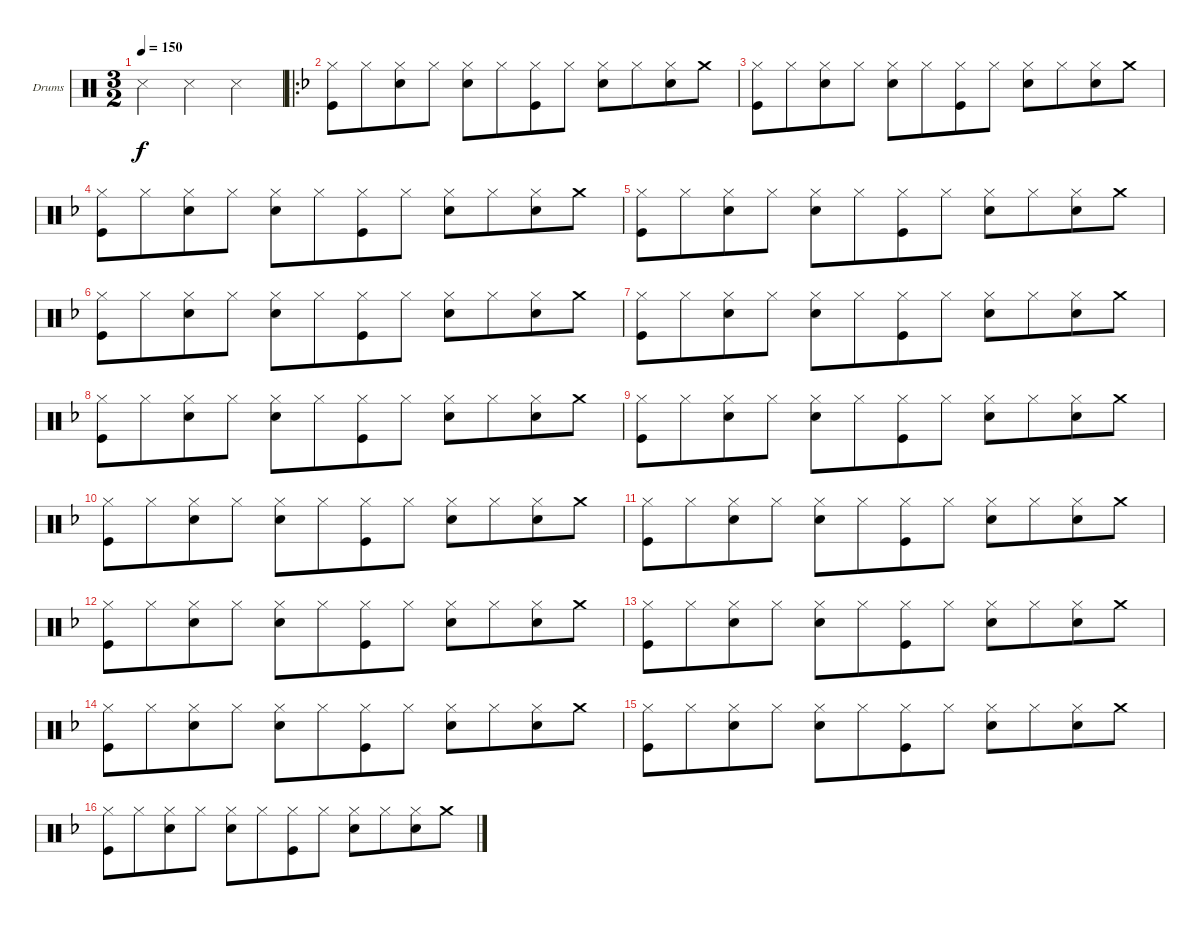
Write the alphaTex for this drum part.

\bracketExtendMode groupsimilarinstruments
\firstSystemTrackNameOrientation horizontal
\otherSystemsTrackNameOrientation horizontal
\track ("Drumkit" "Drums") {instrument percussion}
\staff {score}
\articulation defaults
\ts (3 2)
\beaming (8 4 4 4)
\tempo 150
\clef neutral
\ks c "Snare (side stick) 3".2{dy f} "Snare (side stick) 3".2 "Snare (side stick) 3".2
|
\ro
\ks f
("Hi-Hat (closed)" "Kick (hit)").8 "Hi-Hat (closed)".8 ("Hi-Hat (closed)" "Snare (hit) 2").8 "Hi-Hat (closed)".8 ("Hi-Hat (closed)" "Snare (hit) 2").8 "Hi-Hat (closed)".8 ("Hi-Hat (closed)" "Kick (hit)").8 "Hi-Hat (closed)".8 ("Hi-Hat (closed)" "Snare (hit) 2").8 "Hi-Hat (closed)".8 ("Hi-Hat (closed)" "Snare (hit) 2").8 "Crash medium (hit)".8 |
("Hi-Hat (closed)" "Kick (hit)").8 "Hi-Hat (closed)".8 ("Hi-Hat (closed)" "Snare (hit) 2").8 "Hi-Hat (closed)".8 ("Hi-Hat (closed)" "Snare (hit) 2").8 "Hi-Hat (closed)".8 ("Hi-Hat (closed)" "Kick (hit)").8 "Hi-Hat (closed)".8 ("Hi-Hat (closed)" "Snare (hit) 2").8 "Hi-Hat (closed)".8 ("Hi-Hat (closed)" "Snare (hit) 2").8 "Crash medium (hit)".8 |
("Hi-Hat (closed)" "Kick (hit)").8 "Hi-Hat (closed)".8 ("Hi-Hat (closed)" "Snare (hit) 2").8 "Hi-Hat (closed)".8 ("Hi-Hat (closed)" "Snare (hit) 2").8 "Hi-Hat (closed)".8 ("Hi-Hat (closed)" "Kick (hit)").8 "Hi-Hat (closed)".8 ("Hi-Hat (closed)" "Snare (hit) 2").8 "Hi-Hat (closed)".8 ("Hi-Hat (closed)" "Snare (hit) 2").8 "Crash medium (hit)".8 |
("Hi-Hat (closed)" "Kick (hit)").8 "Hi-Hat (closed)".8 ("Hi-Hat (closed)" "Snare (hit) 2").8 "Hi-Hat (closed)".8 ("Hi-Hat (closed)" "Snare (hit) 2").8 "Hi-Hat (closed)".8 ("Hi-Hat (closed)" "Kick (hit)").8 "Hi-Hat (closed)".8 ("Hi-Hat (closed)" "Snare (hit) 2").8 "Hi-Hat (closed)".8 ("Hi-Hat (closed)" "Snare (hit) 2").8 "Crash medium (hit)".8 |
("Hi-Hat (closed)" "Kick (hit)").8 "Hi-Hat (closed)".8 ("Hi-Hat (closed)" "Snare (hit) 2").8 "Hi-Hat (closed)".8 ("Hi-Hat (closed)" "Snare (hit) 2").8 "Hi-Hat (closed)".8 ("Hi-Hat (closed)" "Kick (hit)").8 "Hi-Hat (closed)".8 ("Hi-Hat (closed)" "Snare (hit) 2").8 "Hi-Hat (closed)".8 ("Hi-Hat (closed)" "Snare (hit) 2").8 "Crash medium (hit)".8 |
("Hi-Hat (closed)" "Kick (hit)").8 "Hi-Hat (closed)".8 ("Hi-Hat (closed)" "Snare (hit) 2").8 "Hi-Hat (closed)".8 ("Hi-Hat (closed)" "Snare (hit) 2").8 "Hi-Hat (closed)".8 ("Hi-Hat (closed)" "Kick (hit)").8 "Hi-Hat (closed)".8 ("Hi-Hat (closed)" "Snare (hit) 2").8 "Hi-Hat (closed)".8 ("Hi-Hat (closed)" "Snare (hit) 2").8 "Crash medium (hit)".8 |
("Hi-Hat (closed)" "Kick (hit)").8 "Hi-Hat (closed)".8 ("Hi-Hat (closed)" "Snare (hit) 2").8 "Hi-Hat (closed)".8 ("Hi-Hat (closed)" "Snare (hit) 2").8 "Hi-Hat (closed)".8 ("Hi-Hat (closed)" "Kick (hit)").8 "Hi-Hat (closed)".8 ("Hi-Hat (closed)" "Snare (hit) 2").8 "Hi-Hat (closed)".8 ("Hi-Hat (closed)" "Snare (hit) 2").8 "Crash medium (hit)".8 |
("Hi-Hat (closed)" "Kick (hit)").8 "Hi-Hat (closed)".8 ("Hi-Hat (closed)" "Snare (hit) 2").8 "Hi-Hat (closed)".8 ("Hi-Hat (closed)" "Snare (hit) 2").8 "Hi-Hat (closed)".8 ("Hi-Hat (closed)" "Kick (hit)").8 "Hi-Hat (closed)".8 ("Hi-Hat (closed)" "Snare (hit) 2").8 "Hi-Hat (closed)".8 ("Hi-Hat (closed)" "Snare (hit) 2").8 "Crash medium (hit)".8 |
("Hi-Hat (closed)" "Kick (hit)").8 "Hi-Hat (closed)".8 ("Hi-Hat (closed)" "Snare (hit) 2").8 "Hi-Hat (closed)".8 ("Hi-Hat (closed)" "Snare (hit) 2").8 "Hi-Hat (closed)".8 ("Hi-Hat (closed)" "Kick (hit)").8 "Hi-Hat (closed)".8 ("Hi-Hat (closed)" "Snare (hit) 2").8 "Hi-Hat (closed)".8 ("Hi-Hat (closed)" "Snare (hit) 2").8 "Crash medium (hit)".8 |
("Hi-Hat (closed)" "Kick (hit)").8 "Hi-Hat (closed)".8 ("Hi-Hat (closed)" "Snare (hit) 2").8 "Hi-Hat (closed)".8 ("Hi-Hat (closed)" "Snare (hit) 2").8 "Hi-Hat (closed)".8 ("Hi-Hat (closed)" "Kick (hit)").8 "Hi-Hat (closed)".8 ("Hi-Hat (closed)" "Snare (hit) 2").8 "Hi-Hat (closed)".8 ("Hi-Hat (closed)" "Snare (hit) 2").8 "Crash medium (hit)".8 |
("Hi-Hat (closed)" "Kick (hit)").8 "Hi-Hat (closed)".8 ("Hi-Hat (closed)" "Snare (hit) 2").8 "Hi-Hat (closed)".8 ("Hi-Hat (closed)" "Snare (hit) 2").8 "Hi-Hat (closed)".8 ("Hi-Hat (closed)" "Kick (hit)").8 "Hi-Hat (closed)".8 ("Hi-Hat (closed)" "Snare (hit) 2").8 "Hi-Hat (closed)".8 ("Hi-Hat (closed)" "Snare (hit) 2").8 "Crash medium (hit)".8 |
("Hi-Hat (closed)" "Kick (hit)").8 "Hi-Hat (closed)".8 ("Hi-Hat (closed)" "Snare (hit) 2").8 "Hi-Hat (closed)".8 ("Hi-Hat (closed)" "Snare (hit) 2").8 "Hi-Hat (closed)".8 ("Hi-Hat (closed)" "Kick (hit)").8 "Hi-Hat (closed)".8 ("Hi-Hat (closed)" "Snare (hit) 2").8 "Hi-Hat (closed)".8 ("Hi-Hat (closed)" "Snare (hit) 2").8 "Crash medium (hit)".8 |
("Hi-Hat (closed)" "Kick (hit)").8 "Hi-Hat (closed)".8 ("Hi-Hat (closed)" "Snare (hit) 2").8 "Hi-Hat (closed)".8 ("Hi-Hat (closed)" "Snare (hit) 2").8 "Hi-Hat (closed)".8 ("Hi-Hat (closed)" "Kick (hit)").8 "Hi-Hat (closed)".8 ("Hi-Hat (closed)" "Snare (hit) 2").8 "Hi-Hat (closed)".8 ("Hi-Hat (closed)" "Snare (hit) 2").8 "Crash medium (hit)".8 |
("Hi-Hat (closed)" "Kick (hit)").8 "Hi-Hat (closed)".8 ("Hi-Hat (closed)" "Snare (hit) 2").8 "Hi-Hat (closed)".8 ("Hi-Hat (closed)" "Snare (hit) 2").8 "Hi-Hat (closed)".8 ("Hi-Hat (closed)" "Kick (hit)").8 "Hi-Hat (closed)".8 ("Hi-Hat (closed)" "Snare (hit) 2").8 "Hi-Hat (closed)".8 ("Hi-Hat (closed)" "Snare (hit) 2").8 "Crash medium (hit)".8 |
("Hi-Hat (closed)" "Kick (hit)").8 "Hi-Hat (closed)".8 ("Hi-Hat (closed)" "Snare (hit) 2").8 "Hi-Hat (closed)".8 ("Hi-Hat (closed)" "Snare (hit) 2").8 "Hi-Hat (closed)".8 ("Hi-Hat (closed)" "Kick (hit)").8 "Hi-Hat (closed)".8 ("Hi-Hat (closed)" "Snare (hit) 2").8 "Hi-Hat (closed)".8 ("Hi-Hat (closed)" "Snare (hit) 2").8 "Crash medium (hit)".8
